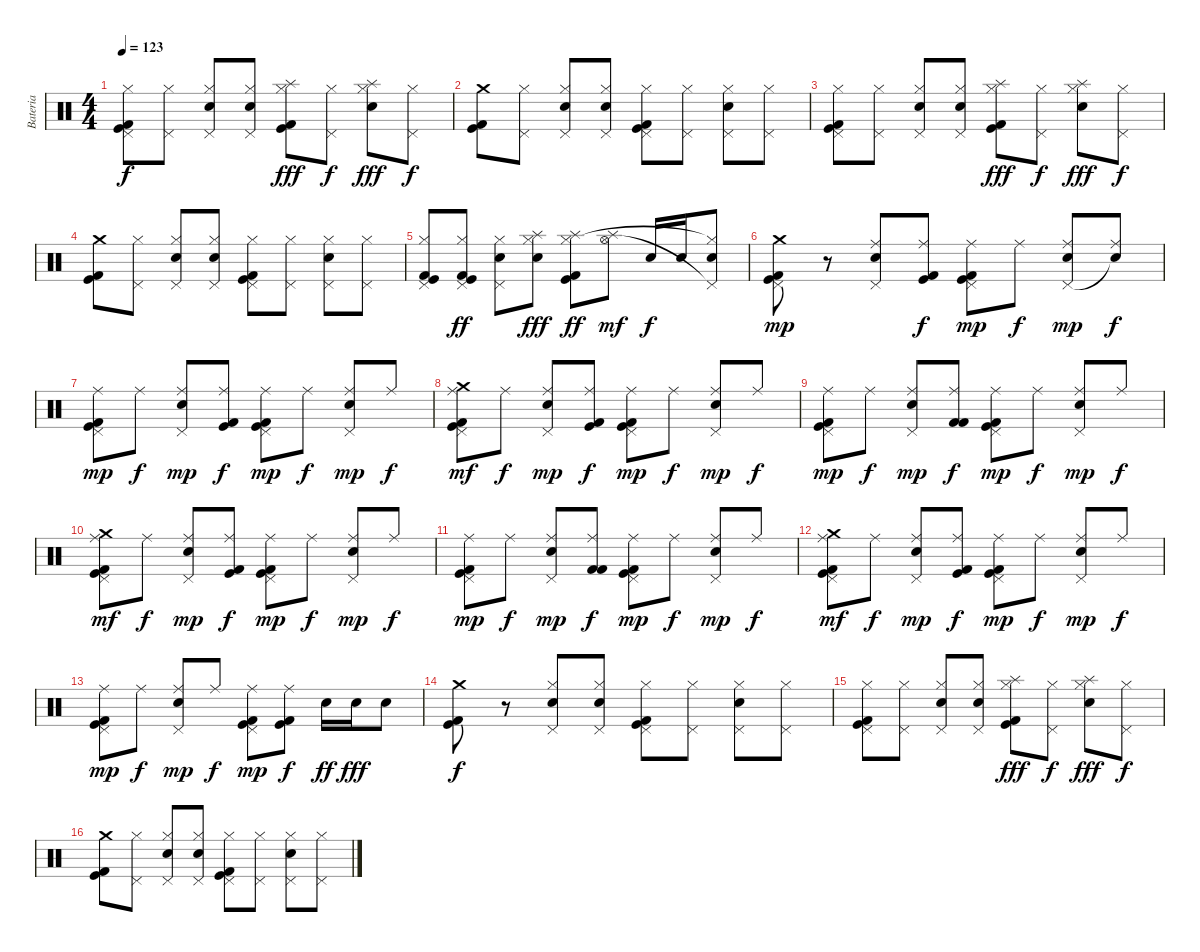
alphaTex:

\track ("Bateria" "Bateria") {instrument percussion}
\staff {score}
\articulation defaults
\ts (4 4)
\tempo 123
\clef neutral
\ks c
("Kick (hit) 2" "Pedal Hi-Hat (hit)" "Hi-Hat (closed)" "Kick (hit)").8{dy f} ("Pedal Hi-Hat (hit)" "Hi-Hat (closed)").8 ("Snare (hit) 2" "Pedal Hi-Hat (hit)" "Hi-Hat (closed)").8 ("Snare (hit) 2" "Pedal Hi-Hat (hit)" "Hi-Hat (closed)").8 ("Kick (hit) 2" "Splash (hit)" "Hi-Hat (closed)" "Kick (hit)").8{dy fff} ("Pedal Hi-Hat (hit)" "Hi-Hat (closed)").8{dy f} ("Snare (hit) 2" "Splash (hit)" "Hi-Hat (closed)").8{dy fff} ("Pedal Hi-Hat (hit)" "Hi-Hat (closed)").8{dy f} |
("Kick (hit) 2" "Crash medium (hit)" "Kick (hit)").8 ("Pedal Hi-Hat (hit)" "Hi-Hat (closed)").8 ("Snare (hit) 2" "Pedal Hi-Hat (hit)" "Hi-Hat (closed)").8 ("Snare (hit) 2" "Pedal Hi-Hat (hit)" "Hi-Hat (closed)").8 ("Kick (hit) 2" "Pedal Hi-Hat (hit)" "Hi-Hat (closed)" "Kick (hit)").8 ("Pedal Hi-Hat (hit)" "Hi-Hat (closed)").8 ("Snare (hit) 2" "Pedal Hi-Hat (hit)" "Hi-Hat (closed)").8 ("Pedal Hi-Hat (hit)" "Hi-Hat (closed)").8 |
("Kick (hit) 2" "Pedal Hi-Hat (hit)" "Hi-Hat (closed)" "Kick (hit)").8 ("Pedal Hi-Hat (hit)" "Hi-Hat (closed)").8 ("Snare (hit) 2" "Pedal Hi-Hat (hit)" "Hi-Hat (closed)").8 ("Snare (hit) 2" "Pedal Hi-Hat (hit)" "Hi-Hat (closed)").8 ("Kick (hit) 2" "Splash (hit)" "Hi-Hat (closed)" "Kick (hit)").8{dy fff} ("Pedal Hi-Hat (hit)" "Hi-Hat (closed)").8{dy f} ("Snare (hit) 2" "Splash (hit)" "Hi-Hat (closed)").8{dy fff} ("Pedal Hi-Hat (hit)" "Hi-Hat (closed)").8{dy f} |
("Kick (hit) 2" "Crash medium (hit)" "Kick (hit)").8 ("Pedal Hi-Hat (hit)" "Hi-Hat (closed)").8 ("Snare (hit) 2" "Pedal Hi-Hat (hit)" "Hi-Hat (closed)").8 ("Snare (hit) 2" "Pedal Hi-Hat (hit)" "Hi-Hat (closed)").8 ("Kick (hit) 2" "Pedal Hi-Hat (hit)" "Hi-Hat (closed)" "Kick (hit)").8 ("Pedal Hi-Hat (hit)" "Hi-Hat (closed)").8 ("Snare (hit) 2" "Pedal Hi-Hat (hit)" "Hi-Hat (closed)").8 ("Pedal Hi-Hat (hit)" "Hi-Hat (closed)").8 |
("Kick (hit) 2" "Pedal Hi-Hat (hit)" "Hi-Hat (closed)" "Kick (hit)").8 ("Kick (hit) 2" "Pedal Hi-Hat (hit)" "Hi-Hat (closed)" "Kick (hit)").8{dy ff} ("Snare (hit) 2" "Pedal Hi-Hat (hit)" "Hi-Hat (closed)").8 ("Snare (hit) 2" "Splash (hit)" "Hi-Hat (closed)").8{dy fff} ("Kick (hit) 2" "Splash (hit)" "Hi-Hat (closed)" "Kick (hit)").8{dy ff} ("Splash (hit)" "Hi-Hat (open)").8{dy mf} "Snare (hit) 2".16{dy f} "Snare (hit) 2".16 ("Snare (hit) 2" "Pedal Hi-Hat (hit)"{t} "Hi-Hat (closed)"{t}).8 |
("Kick (hit) 2" "Pedal Hi-Hat (hit)" "Crash medium (hit)" "Kick (hit)").8{dy mp} r.8 ("Snare (hit) 2" "Pedal Hi-Hat (hit)" "Ride (middle)").8 ("Kick (hit) 2" "Ride (middle)" "Kick (hit)").8{dy f} ("Kick (hit) 2" "Pedal Hi-Hat (hit)" "Ride (middle)" "Kick (hit)").8{dy mp} "Ride (middle)".8{dy f} ("Snare (hit) 2" "Pedal Hi-Hat (hit)" "Ride (middle)").8{dy mp} ("Ride (middle)" "Snare (hit)"{t}).8{dy f} |
("Kick (hit) 2" "Pedal Hi-Hat (hit)" "Ride (middle)" "Kick (hit)").8{dy mp} "Ride (middle)".8{dy f} ("Snare (hit) 2" "Pedal Hi-Hat (hit)" "Ride (middle)").8{dy mp} ("Kick (hit) 2" "Ride (middle)" "Kick (hit)").8{dy f} ("Kick (hit) 2" "Pedal Hi-Hat (hit)" "Ride (middle)" "Kick (hit)").8{dy mp} "Ride (middle)".8{dy f} ("Snare (hit) 2" "Pedal Hi-Hat (hit)" "Ride (middle)").8{dy mp} "Ride (middle)".8{dy f} |
("Kick (hit) 2" "Pedal Hi-Hat (hit)" "Crash medium (hit)" "Ride (middle)" "Kick (hit)").8{dy mf} "Ride (middle)".8{dy f} ("Snare (hit) 2" "Pedal Hi-Hat (hit)" "Ride (middle)").8{dy mp} ("Kick (hit) 2" "Ride (middle)" "Kick (hit)").8{dy f} ("Kick (hit) 2" "Pedal Hi-Hat (hit)" "Ride (middle)" "Kick (hit)").8{dy mp} "Ride (middle)".8{dy f} ("Snare (hit) 2" "Pedal Hi-Hat (hit)" "Ride (middle)").8{dy mp} "Ride (middle)".8{dy f} |
("Kick (hit) 2" "Pedal Hi-Hat (hit)" "Ride (middle)" "Kick (hit)").8{dy mp} "Ride (middle)".8{dy f} ("Snare (hit) 2" "Pedal Hi-Hat (hit)" "Ride (middle)").8{dy mp} ("Kick (hit) 2" "Ride (middle)" "Kick (hit) 2").8{dy f} ("Kick (hit) 2" "Pedal Hi-Hat (hit)" "Ride (middle)" "Kick (hit)").8{dy mp} "Ride (middle)".8{dy f} ("Snare (hit) 2" "Pedal Hi-Hat (hit)" "Ride (middle)").8{dy mp} "Ride (middle)".8{dy f} |
("Kick (hit) 2" "Pedal Hi-Hat (hit)" "Crash medium (hit)" "Ride (middle)" "Kick (hit)").8{dy mf} "Ride (middle)".8{dy f} ("Snare (hit) 2" "Pedal Hi-Hat (hit)" "Ride (middle)").8{dy mp} ("Kick (hit) 2" "Ride (middle)" "Kick (hit)").8{dy f} ("Kick (hit) 2" "Pedal Hi-Hat (hit)" "Ride (middle)" "Kick (hit)").8{dy mp} "Ride (middle)".8{dy f} ("Snare (hit) 2" "Pedal Hi-Hat (hit)" "Ride (middle)").8{dy mp} "Ride (middle)".8{dy f} |
("Kick (hit) 2" "Pedal Hi-Hat (hit)" "Ride (middle)" "Kick (hit)").8{dy mp} "Ride (middle)".8{dy f} ("Snare (hit) 2" "Pedal Hi-Hat (hit)" "Ride (middle)").8{dy mp} ("Kick (hit) 2" "Ride (middle)" "Kick (hit) 2").8{dy f} ("Kick (hit) 2" "Pedal Hi-Hat (hit)" "Ride (middle)" "Kick (hit)").8{dy mp} "Ride (middle)".8{dy f} ("Snare (hit) 2" "Pedal Hi-Hat (hit)" "Ride (middle)").8{dy mp} "Ride (middle)".8{dy f} |
("Kick (hit) 2" "Pedal Hi-Hat (hit)" "Crash medium (hit)" "Ride (middle)" "Kick (hit)").8{dy mf} "Ride (middle)".8{dy f} ("Snare (hit) 2" "Pedal Hi-Hat (hit)" "Ride (middle)").8{dy mp} ("Kick (hit) 2" "Ride (middle)" "Kick (hit)").8{dy f} ("Kick (hit) 2" "Pedal Hi-Hat (hit)" "Ride (middle)" "Kick (hit)").8{dy mp} "Ride (middle)".8{dy f} ("Snare (hit) 2" "Pedal Hi-Hat (hit)" "Ride (middle)").8{dy mp} "Ride (middle)".8{dy f} |
("Kick (hit) 2" "Pedal Hi-Hat (hit)" "Ride (middle)" "Kick (hit)").8{dy mp} "Ride (middle)".8{dy f} ("Snare (hit) 2" "Pedal Hi-Hat (hit)" "Ride (middle)").8{dy mp} "Ride (middle)".8{dy f} ("Kick (hit) 2" "Pedal Hi-Hat (hit)" "Ride (middle)" "Kick (hit)").8{dy mp} ("Kick (hit) 2" "Ride (middle)" "Kick (hit)").8{dy f} "Snare (hit) 2".16{dy ff} "Snare (hit) 2".16{dy fff} "Snare (hit) 2".8 |
("Kick (hit) 2" "Crash medium (hit)" "Kick (hit)").8{dy f} r.8 ("Snare (hit) 2" "Pedal Hi-Hat (hit)" "Hi-Hat (closed)").8 ("Snare (hit) 2" "Pedal Hi-Hat (hit)" "Hi-Hat (closed)").8 ("Kick (hit) 2" "Pedal Hi-Hat (hit)" "Hi-Hat (closed)" "Kick (hit)").8 ("Pedal Hi-Hat (hit)" "Hi-Hat (closed)").8 ("Snare (hit) 2" "Pedal Hi-Hat (hit)" "Hi-Hat (closed)").8 ("Pedal Hi-Hat (hit)" "Hi-Hat (closed)").8 |
("Kick (hit) 2" "Pedal Hi-Hat (hit)" "Hi-Hat (closed)" "Kick (hit)").8 ("Pedal Hi-Hat (hit)" "Hi-Hat (closed)").8 ("Snare (hit) 2" "Pedal Hi-Hat (hit)" "Hi-Hat (closed)").8 ("Snare (hit) 2" "Pedal Hi-Hat (hit)" "Hi-Hat (closed)").8 ("Kick (hit) 2" "Splash (hit)" "Hi-Hat (closed)" "Kick (hit)").8{dy fff} ("Pedal Hi-Hat (hit)" "Hi-Hat (closed)").8{dy f} ("Snare (hit) 2" "Splash (hit)" "Hi-Hat (closed)").8{dy fff} ("Pedal Hi-Hat (hit)" "Hi-Hat (closed)").8{dy f} |
("Kick (hit) 2" "Crash medium (hit)" "Kick (hit)").8 ("Pedal Hi-Hat (hit)" "Hi-Hat (closed)").8 ("Snare (hit) 2" "Pedal Hi-Hat (hit)" "Hi-Hat (closed)").8 ("Snare (hit) 2" "Pedal Hi-Hat (hit)" "Hi-Hat (closed)").8 ("Kick (hit) 2" "Pedal Hi-Hat (hit)" "Hi-Hat (closed)" "Kick (hit)").8 ("Pedal Hi-Hat (hit)" "Hi-Hat (closed)").8 ("Snare (hit) 2" "Pedal Hi-Hat (hit)" "Hi-Hat (closed)").8 ("Pedal Hi-Hat (hit)" "Hi-Hat (closed)").8
